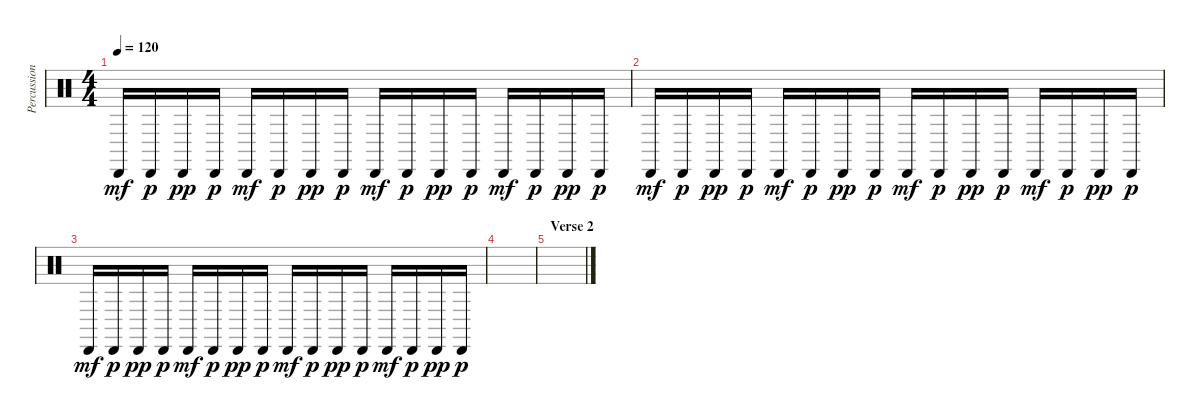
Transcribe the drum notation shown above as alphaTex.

\track ("Percussion" "Percussion") {instrument percussion}
\staff {score}
\articulation defaults
\ts (4 4)
\tempo 120
\clef neutral
\ks c "Cabasa (hit)".16{dy mf} "Cabasa (hit)".16{dy p} "Cabasa (hit)".16{dy pp} "Cabasa (hit)".16{dy p} "Cabasa (hit)".16{dy mf} "Cabasa (hit)".16{dy p} "Cabasa (hit)".16{dy pp} "Cabasa (hit)".16{dy p} "Cabasa (hit)".16{dy mf} "Cabasa (hit)".16{dy p} "Cabasa (hit)".16{dy pp} "Cabasa (hit)".16{dy p} "Cabasa (hit)".16{dy mf} "Cabasa (hit)".16{dy p} "Cabasa (hit)".16{dy pp} "Cabasa (hit)".16{dy p}
|
"Cabasa (hit)".16{dy mf} "Cabasa (hit)".16{dy p} "Cabasa (hit)".16{dy pp} "Cabasa (hit)".16{dy p} "Cabasa (hit)".16{dy mf} "Cabasa (hit)".16{dy p} "Cabasa (hit)".16{dy pp} "Cabasa (hit)".16{dy p} "Cabasa (hit)".16{dy mf} "Cabasa (hit)".16{dy p} "Cabasa (hit)".16{dy pp} "Cabasa (hit)".16{dy p} "Cabasa (hit)".16{dy mf} "Cabasa (hit)".16{dy p} "Cabasa (hit)".16{dy pp} "Cabasa (hit)".16{dy p} |
"Cabasa (hit)".16{dy mf} "Cabasa (hit)".16{dy p} "Cabasa (hit)".16{dy pp} "Cabasa (hit)".16{dy p} "Cabasa (hit)".16{dy mf} "Cabasa (hit)".16{dy p} "Cabasa (hit)".16{dy pp} "Cabasa (hit)".16{dy p} "Cabasa (hit)".16{dy mf} "Cabasa (hit)".16{dy p} "Cabasa (hit)".16{dy pp} "Cabasa (hit)".16{dy p} "Cabasa (hit)".16{dy mf} "Cabasa (hit)".16{dy p} "Cabasa (hit)".16{dy pp} "Cabasa (hit)".16{dy p} |
|
\section ("" "Verse 2")
